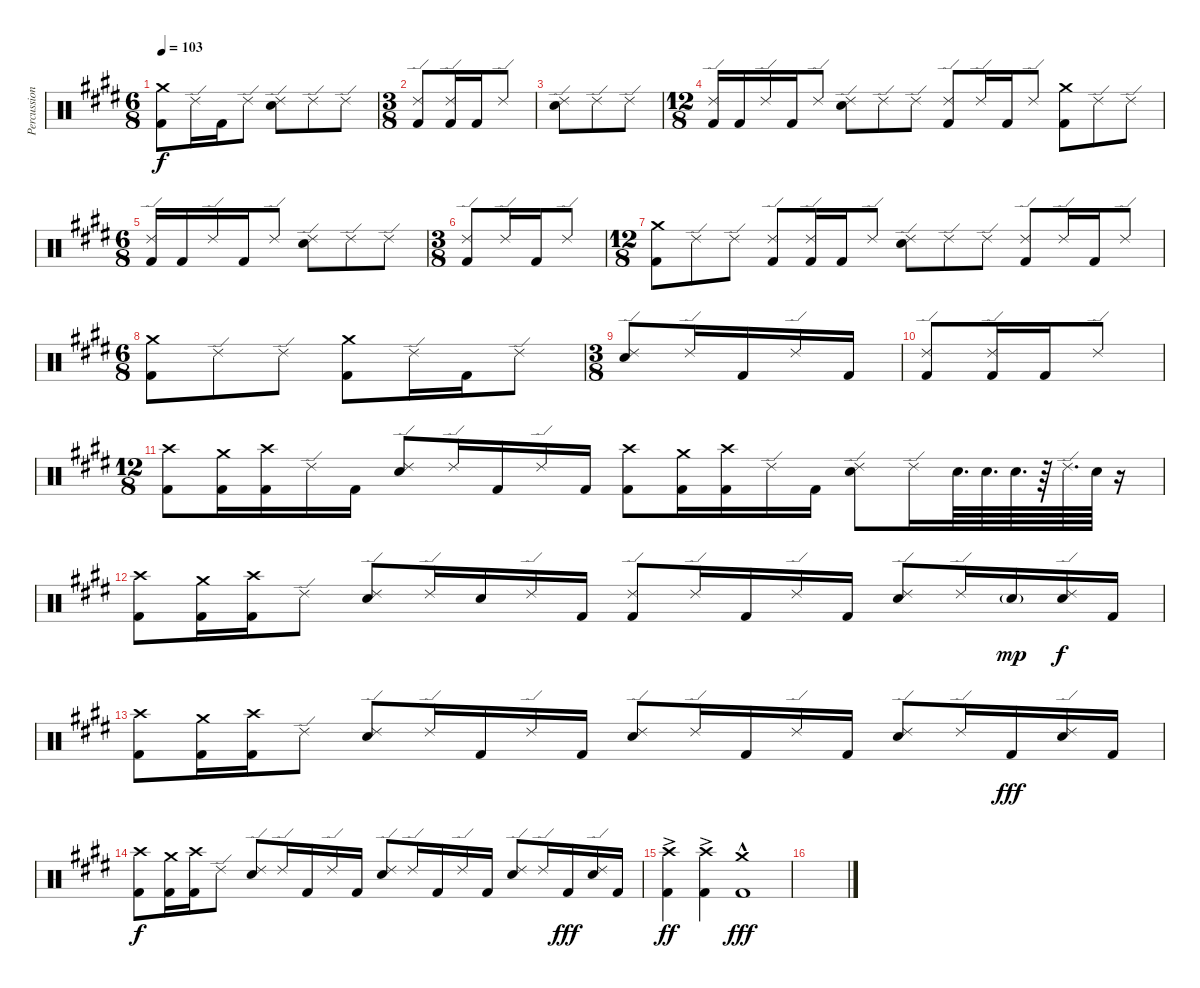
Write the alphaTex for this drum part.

\track ("Percussion" "Percussion") {instrument percussion}
\staff {score}
\articulation defaults
\ts (6 8)
\tempo 103
\clef neutral
\ks e
("Crash medium (hit)" "Kick (hit) 2").8{dy f beam merge} "Ride (edge) 2".16{beam merge} "Kick (hit) 2".16{beam merge} "Ride (edge) 2".8{beam split} ("Ride (edge) 2" "Electric Snare (hit)").8{beam merge} "Ride (edge) 2".8 "Ride (edge) 2".8 |
\ts (3 8)
\ks c#minor
("Ride (edge) 2" "Kick (hit) 2").8{beam merge} ("Ride (edge) 2" "Kick (hit) 2").16 "Kick (hit) 2".16{beam merge} "Ride (edge) 2".8 |
("Ride (edge) 2" "Electric Snare (hit)").8 "Ride (edge) 2".8{beam merge} "Ride (edge) 2".8 |
\ts (12 8)
("Ride (edge) 2" "Kick (hit) 2").16 "Kick (hit) 2".16 "Ride (edge) 2".16 "Kick (hit) 2".16 "Ride (edge) 2".8 ("Ride (edge) 2" "Electric Snare (hit)").8 "Ride (edge) 2".8 "Ride (edge) 2".8 ("Ride (edge) 2" "Kick (hit) 2").8 "Ride (edge) 2".16 "Kick (hit) 2".16 "Ride (edge) 2".8 ("Crash medium (hit)" "Kick (hit) 2").8 "Ride (edge) 2".8 "Ride (edge) 2".8 |
\ts (6 8)
\ks e
("Ride (edge) 2" "Kick (hit) 2").16{beam merge} "Kick (hit) 2".16{beam merge} "Ride (edge) 2".16{beam merge} "Kick (hit) 2".16{beam merge} "Ride (edge) 2".8{beam split} ("Ride (edge) 2" "Electric Snare (hit)").8{beam merge} "Ride (edge) 2".8 "Ride (edge) 2".8 |
\ts (3 8)
\ks c#minor
("Ride (edge) 2" "Kick (hit) 2").8{beam merge} "Ride (edge) 2".16 "Kick (hit) 2".16{beam merge} "Ride (edge) 2".8 |
\ts (12 8)
("Crash medium (hit)" "Kick (hit) 2").8 "Ride (edge) 2".8{beam merge} "Ride (edge) 2".8 ("Ride (edge) 2" "Kick (hit) 2").8 ("Ride (edge) 2" "Kick (hit) 2").16 "Kick (hit) 2".16 "Ride (edge) 2".8 ("Ride (edge) 2" "Electric Snare (hit)").8 "Ride (edge) 2".8{beam merge} "Ride (edge) 2".8 ("Ride (edge) 2" "Kick (hit) 2").8 "Ride (edge) 2".16 "Kick (hit) 2".16 "Ride (edge) 2".8 |
\ts (6 8)
\ks e
("Crash medium (hit)" "Kick (hit) 2").8 "Ride (edge) 2".8{beam merge} "Ride (edge) 2".8 ("Crash medium (hit)" "Kick (hit) 2").8 "Ride (edge) 2".16 "Kick (hit) 2".16 "Ride (edge) 2".8 |
\ts (3 8)
\ks c#minor
("Ride (edge) 2" "Electric Snare (hit)").8{beam merge} "Ride (edge) 2".16 "Kick (hit) 2".16{beam merge} "Ride (edge) 2".16 "Kick (hit) 2".16 |
("Ride (edge) 2" "Kick (hit) 2").8{beam merge} ("Ride (edge) 2" "Kick (hit) 2").16 "Kick (hit) 2".16{beam merge} "Ride (edge) 2".8 |
\ts (12 8)
("Crash high (hit)" "Kick (hit) 2").8 ("Crash medium (hit)" "Kick (hit) 2").16 ("Crash high (hit)" "Kick (hit) 2").16 "Ride (edge) 2".16 "Kick (hit) 2".16 ("Ride (edge) 2" "Electric Snare (hit)").8 "Ride (edge) 2".16 "Kick (hit) 2".16 "Ride (edge) 2".16 "Kick (hit) 2".16 ("Crash high (hit)" "Kick (hit) 2").8 ("Crash medium (hit)" "Kick (hit) 2").16 ("Crash high (hit)" "Kick (hit) 2").16 "Ride (edge) 2".16 "Kick (hit) 2".16 ("Ride (edge) 2" "Electric Snare (hit)").8 "Ride (edge) 2".16 "Electric Snare (hit)".64{d} "Electric Snare (hit)".64{d} "Electric Snare (hit)".64{d} r.64 "Ride (edge) 2".64{d} "Electric Snare (hit)".64 r.16 |
\ks e
("Crash high (hit)" "Kick (hit) 2").8 ("Crash medium (hit)" "Kick (hit) 2").16 ("Crash high (hit)" "Kick (hit) 2").16 "Ride (edge) 2".8 ("Ride (edge) 2" "Electric Snare (hit)").8 "Ride (edge) 2".16 "Electric Snare (hit)".16 "Ride (edge) 2".16 "Kick (hit) 2".16 ("Ride (edge) 2" "Kick (hit) 2").8 "Ride (edge) 2".16 "Kick (hit) 2".16 "Ride (edge) 2".16 "Kick (hit) 2".16 ("Ride (edge) 2" "Electric Snare (hit)").8 "Ride (edge) 2".16 "Electric Snare (hit)"{g}.16{dy mp} ("Ride (edge) 2" "Electric Snare (hit)").16{dy f} "Kick (hit) 2".16 |
\ks c#minor
("Crash high (hit)" "Kick (hit) 2").8 ("Crash medium (hit)" "Kick (hit) 2").16 ("Crash high (hit)" "Kick (hit) 2").16 "Ride (edge) 2".8 ("Ride (edge) 2" "Electric Snare (hit)").8 "Ride (edge) 2".16 "Kick (hit) 2".16 "Ride (edge) 2".16 "Kick (hit) 2".16 ("Ride (edge) 2" "Electric Snare (hit)").8 "Ride (edge) 2".16 "Kick (hit) 2".16 "Ride (edge) 2".16 "Kick (hit) 2".16 ("Ride (edge) 2" "Electric Snare (hit)").8 "Ride (edge) 2".16 "Kick (hit) 2".16{dy fff} ("Ride (edge) 2" "Electric Snare (hit)").16 "Kick (hit) 2".16 |
\ks e
("Crash high (hit)" "Kick (hit) 2").8{dy f} ("Crash medium (hit)" "Kick (hit) 2").16 ("Crash high (hit)" "Kick (hit) 2").16 "Ride (edge) 2".8 ("Ride (edge) 2" "Electric Snare (hit)").8 "Ride (edge) 2".16 "Kick (hit) 2".16 "Ride (edge) 2".16 "Kick (hit) 2".16 ("Ride (edge) 2" "Electric Snare (hit)").8 "Ride (edge) 2".16 "Kick (hit) 2".16 "Ride (edge) 2".16 "Kick (hit) 2".16 ("Ride (edge) 2" "Electric Snare (hit)").8 "Ride (edge) 2".16 "Kick (hit) 2".16{dy fff} ("Ride (edge) 2" "Electric Snare (hit)").16 "Kick (hit) 2".16 |
\ks c#minor
("Crash high (hit)" "Kick (hit) 2"{ac}).4{dy ff} ("Crash high (hit)" "Kick (hit) 2"{ac}).4 ("Crash medium (hit)" "Kick (hit) 2"{hac}).1{dy fff} |
\ks e
